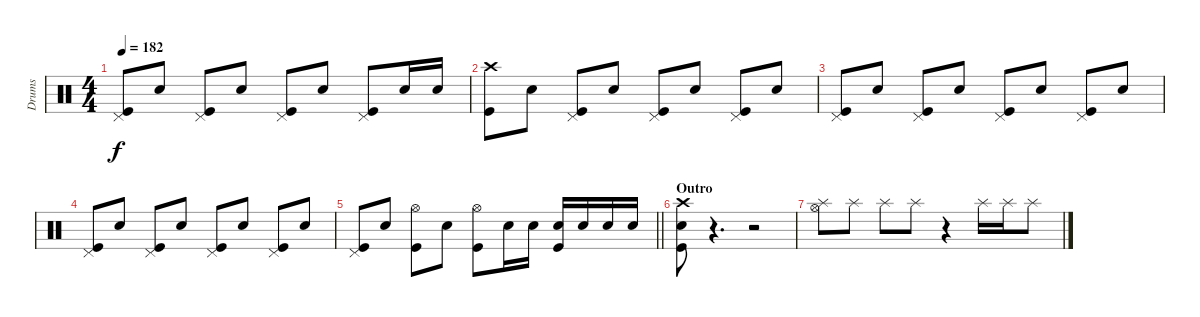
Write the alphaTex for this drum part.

\track ("Drums" "Drums") {instrument percussion}
\staff {score}
\articulation defaults
\ts (4 4)
\tempo 182
\clef neutral
\ks c
("Pedal Hi-Hat (hit)" "Kick (hit)").8{dy f} "Snare (hit) 2".8 ("Pedal Hi-Hat (hit)" "Kick (hit)").8 "Snare (hit) 2".8 ("Pedal Hi-Hat (hit)" "Kick (hit)").8 "Snare (hit) 2".8 ("Pedal Hi-Hat (hit)" "Kick (hit)").8 "Snare (hit) 2".16 "Snare (hit) 2".16 |
("Crash high (hit)" "Kick (hit)").8 "Snare (hit) 2".8 ("Pedal Hi-Hat (hit)" "Kick (hit)").8 "Snare (hit) 2".8 ("Pedal Hi-Hat (hit)" "Kick (hit)").8 "Snare (hit) 2".8 ("Pedal Hi-Hat (hit)" "Kick (hit)").8 "Snare (hit) 2".8 |
("Pedal Hi-Hat (hit)" "Kick (hit)").8 "Snare (hit) 2".8 ("Pedal Hi-Hat (hit)" "Kick (hit)").8 "Snare (hit) 2".8 ("Pedal Hi-Hat (hit)" "Kick (hit)").8 "Snare (hit) 2".8 ("Pedal Hi-Hat (hit)" "Kick (hit)").8 "Snare (hit) 2".8 |
("Pedal Hi-Hat (hit)" "Kick (hit)").8 "Snare (hit) 2".8 ("Pedal Hi-Hat (hit)" "Kick (hit)").8 "Snare (hit) 2".8 ("Pedal Hi-Hat (hit)" "Kick (hit)").8 "Snare (hit) 2".8 ("Pedal Hi-Hat (hit)" "Kick (hit)").8 "Snare (hit) 2".8 |
\barLineRight lightlight
("Pedal Hi-Hat (hit)" "Kick (hit)").8 "Snare (hit) 2".8 ("Hi-Hat (open)" "Kick (hit)").8 "Snare (hit) 2".8 ("Hi-Hat (open)" "Kick (hit)").8 "Snare (hit) 2".16 "Snare (hit) 2".16 ("Snare (hit) 2" "Kick (hit)").16 "Snare (hit) 2".16 "Snare (hit) 2".16 "Snare (hit) 2".16 |
\section ("" "Outro")
("Crash high (hit)" "Snare (hit) 2" "Kick (hit)").8 r.4{d} r.2 |
("Splash (hit)" "Hi-Hat (open)").8 "Splash (hit)".8 "Splash (hit)".8 "Splash (hit)".8 r.4 "Splash (hit)".16 "Splash (hit)".16 "Splash (hit)".8
